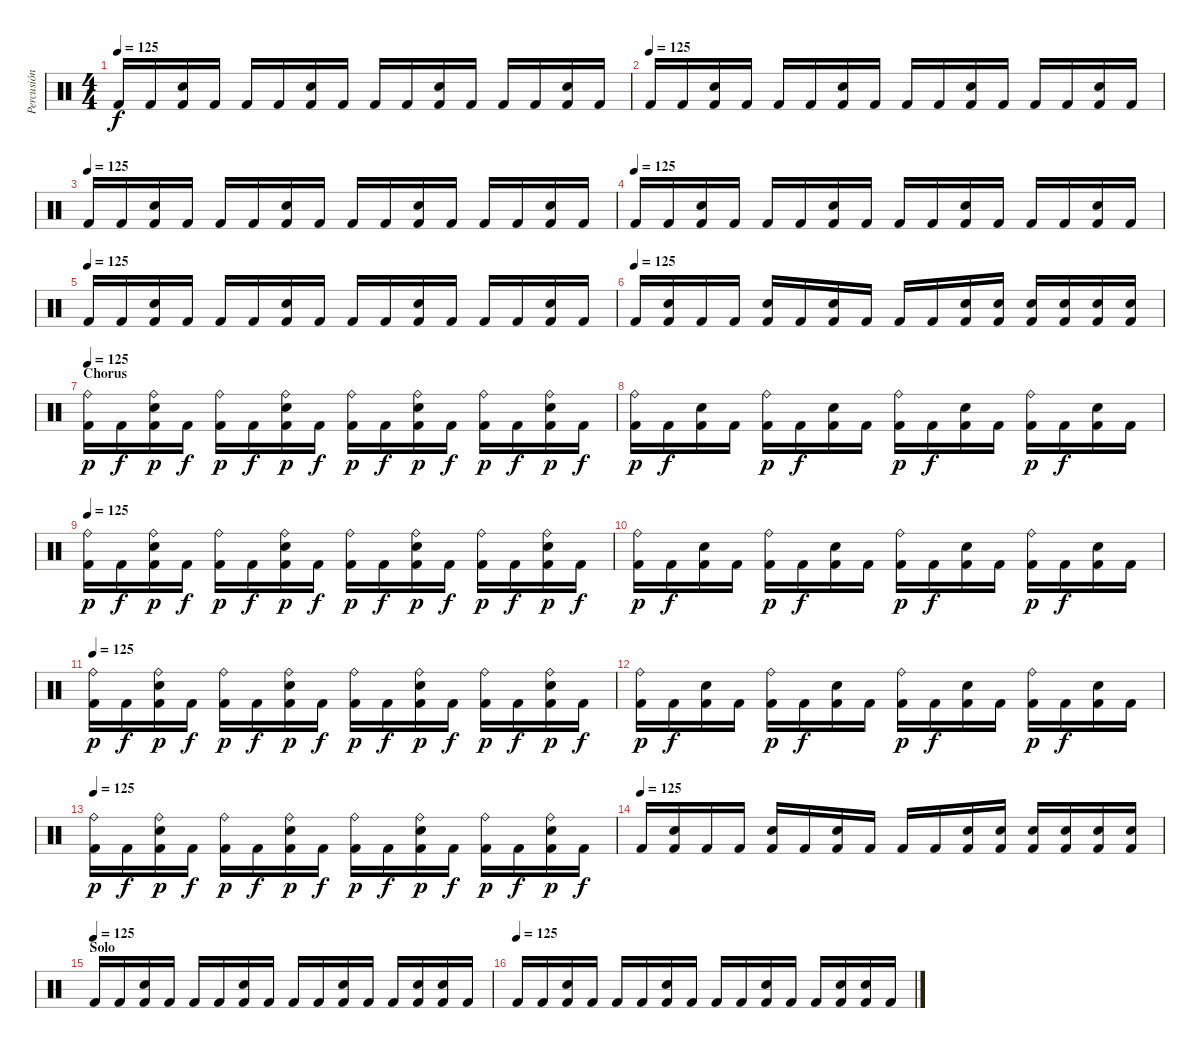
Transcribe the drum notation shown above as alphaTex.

\track ("Percusión" "Percusión") {instrument percussion}
\staff {score}
\articulation defaults
\ts (4 4)
\tempo 125
\clef neutral
\ks c "Kick (hit) 2".16{dy f} "Kick (hit) 2".16
("Electric Snare (hit)" "Kick (hit) 2").16 "Kick (hit) 2".16 "Kick (hit) 2".16 "Kick (hit) 2".16 ("Electric Snare (hit)" "Kick (hit) 2").16 "Kick (hit) 2".16 "Kick (hit) 2".16 "Kick (hit) 2".16 ("Electric Snare (hit)" "Kick (hit) 2").16 "Kick (hit) 2".16 "Kick (hit) 2".16 "Kick (hit) 2".16 ("Electric Snare (hit)" "Kick (hit) 2").16 "Kick (hit) 2".16 |
\tempo (125)
"Kick (hit) 2".16 "Kick (hit) 2".16 ("Electric Snare (hit)" "Kick (hit) 2").16 "Kick (hit) 2".16 "Kick (hit) 2".16 "Kick (hit) 2".16 ("Electric Snare (hit)" "Kick (hit) 2").16 "Kick (hit) 2".16 "Kick (hit) 2".16 "Kick (hit) 2".16 ("Electric Snare (hit)" "Kick (hit) 2").16 "Kick (hit) 2".16 "Kick (hit) 2".16 "Kick (hit) 2".16 ("Electric Snare (hit)" "Kick (hit) 2").16 "Kick (hit) 2".16 |
\tempo (125)
"Kick (hit) 2".16 "Kick (hit) 2".16 ("Electric Snare (hit)" "Kick (hit) 2").16 "Kick (hit) 2".16 "Kick (hit) 2".16 "Kick (hit) 2".16 ("Electric Snare (hit)" "Kick (hit) 2").16 "Kick (hit) 2".16 "Kick (hit) 2".16 "Kick (hit) 2".16 ("Electric Snare (hit)" "Kick (hit) 2").16 "Kick (hit) 2".16 "Kick (hit) 2".16 "Kick (hit) 2".16 ("Electric Snare (hit)" "Kick (hit) 2").16 "Kick (hit) 2".16 |
\tempo (125)
"Kick (hit) 2".16 "Kick (hit) 2".16 ("Electric Snare (hit)" "Kick (hit) 2").16 "Kick (hit) 2".16 "Kick (hit) 2".16 "Kick (hit) 2".16 ("Electric Snare (hit)" "Kick (hit) 2").16 "Kick (hit) 2".16 "Kick (hit) 2".16 "Kick (hit) 2".16 ("Electric Snare (hit)" "Kick (hit) 2").16 "Kick (hit) 2".16 "Kick (hit) 2".16 "Kick (hit) 2".16 ("Electric Snare (hit)" "Kick (hit) 2").16 "Kick (hit) 2".16 |
\tempo (125)
"Kick (hit) 2".16 "Kick (hit) 2".16 ("Electric Snare (hit)" "Kick (hit) 2").16 "Kick (hit) 2".16 "Kick (hit) 2".16 "Kick (hit) 2".16 ("Electric Snare (hit)" "Kick (hit) 2").16 "Kick (hit) 2".16 "Kick (hit) 2".16 "Kick (hit) 2".16 ("Electric Snare (hit)" "Kick (hit) 2").16 "Kick (hit) 2".16 "Kick (hit) 2".16 "Kick (hit) 2".16 ("Electric Snare (hit)" "Kick (hit) 2").16 "Kick (hit) 2".16 |
\tempo (125)
"Kick (hit) 2".16 ("Electric Snare (hit)" "Kick (hit) 2").16 "Kick (hit) 2".16 "Kick (hit) 2".16 ("Electric Snare (hit)" "Kick (hit) 2").16 "Kick (hit) 2".16 ("Electric Snare (hit)" "Kick (hit) 2").16 "Kick (hit) 2".16 "Kick (hit) 2".16 "Kick (hit) 2".16 ("Electric Snare (hit)" "Kick (hit) 2").16 ("Electric Snare (hit)" "Kick (hit) 2").16 ("Electric Snare (hit)" "Kick (hit) 2").16 ("Electric Snare (hit)" "Kick (hit) 2").16 ("Electric Snare (hit)" "Kick (hit) 2").16 ("Electric Snare (hit)" "Kick (hit) 2").16 |
\section ("" "Chorus")
\tempo 125
("Ride (bell)" "Kick (hit) 2").16{dy p} "Kick (hit) 2".16{dy f} ("Ride (bell)" "Electric Snare (hit)" "Kick (hit) 2").16{dy p} "Kick (hit) 2".16{dy f} ("Ride (bell)" "Kick (hit) 2").16{dy p} "Kick (hit) 2".16{dy f} ("Ride (bell)" "Electric Snare (hit)" "Kick (hit) 2").16{dy p} "Kick (hit) 2".16{dy f} ("Ride (bell)" "Kick (hit) 2").16{dy p} "Kick (hit) 2".16{dy f} ("Ride (bell)" "Electric Snare (hit)" "Kick (hit) 2").16{dy p} "Kick (hit) 2".16{dy f} ("Ride (bell)" "Kick (hit) 2").16{dy p} "Kick (hit) 2".16{dy f} ("Ride (bell)" "Electric Snare (hit)" "Kick (hit) 2").16{dy p} "Kick (hit) 2".16{dy f} |
("Ride (bell)" "Kick (hit) 2").16{dy p} "Kick (hit) 2".16{dy f} ("Electric Snare (hit)" "Kick (hit) 2").16 "Kick (hit) 2".16 ("Ride (bell)" "Kick (hit) 2").16{dy p} "Kick (hit) 2".16{dy f} ("Electric Snare (hit)" "Kick (hit) 2").16 "Kick (hit) 2".16 ("Ride (bell)" "Kick (hit) 2").16{dy p} "Kick (hit) 2".16{dy f} ("Electric Snare (hit)" "Kick (hit) 2").16 "Kick (hit) 2".16 ("Ride (bell)" "Kick (hit) 2").16{dy p} "Kick (hit) 2".16{dy f} ("Electric Snare (hit)" "Kick (hit) 2").16 "Kick (hit) 2".16 |
\tempo 125
("Ride (bell)" "Kick (hit) 2").16{dy p} "Kick (hit) 2".16{dy f} ("Ride (bell)" "Electric Snare (hit)" "Kick (hit) 2").16{dy p} "Kick (hit) 2".16{dy f} ("Ride (bell)" "Kick (hit) 2").16{dy p} "Kick (hit) 2".16{dy f} ("Ride (bell)" "Electric Snare (hit)" "Kick (hit) 2").16{dy p} "Kick (hit) 2".16{dy f} ("Ride (bell)" "Kick (hit) 2").16{dy p} "Kick (hit) 2".16{dy f} ("Ride (bell)" "Electric Snare (hit)" "Kick (hit) 2").16{dy p} "Kick (hit) 2".16{dy f} ("Ride (bell)" "Kick (hit) 2").16{dy p} "Kick (hit) 2".16{dy f} ("Ride (bell)" "Electric Snare (hit)" "Kick (hit) 2").16{dy p} "Kick (hit) 2".16{dy f} |
("Ride (bell)" "Kick (hit) 2").16{dy p} "Kick (hit) 2".16{dy f} ("Electric Snare (hit)" "Kick (hit) 2").16 "Kick (hit) 2".16 ("Ride (bell)" "Kick (hit) 2").16{dy p} "Kick (hit) 2".16{dy f} ("Electric Snare (hit)" "Kick (hit) 2").16 "Kick (hit) 2".16 ("Ride (bell)" "Kick (hit) 2").16{dy p} "Kick (hit) 2".16{dy f} ("Electric Snare (hit)" "Kick (hit) 2").16 "Kick (hit) 2".16 ("Ride (bell)" "Kick (hit) 2").16{dy p} "Kick (hit) 2".16{dy f} ("Electric Snare (hit)" "Kick (hit) 2").16 "Kick (hit) 2".16 |
\tempo 125
("Ride (bell)" "Kick (hit) 2").16{dy p} "Kick (hit) 2".16{dy f} ("Ride (bell)" "Electric Snare (hit)" "Kick (hit) 2").16{dy p} "Kick (hit) 2".16{dy f} ("Ride (bell)" "Kick (hit) 2").16{dy p} "Kick (hit) 2".16{dy f} ("Ride (bell)" "Electric Snare (hit)" "Kick (hit) 2").16{dy p} "Kick (hit) 2".16{dy f} ("Ride (bell)" "Kick (hit) 2").16{dy p} "Kick (hit) 2".16{dy f} ("Ride (bell)" "Electric Snare (hit)" "Kick (hit) 2").16{dy p} "Kick (hit) 2".16{dy f} ("Ride (bell)" "Kick (hit) 2").16{dy p} "Kick (hit) 2".16{dy f} ("Ride (bell)" "Electric Snare (hit)" "Kick (hit) 2").16{dy p} "Kick (hit) 2".16{dy f} |
("Ride (bell)" "Kick (hit) 2").16{dy p} "Kick (hit) 2".16{dy f} ("Electric Snare (hit)" "Kick (hit) 2").16 "Kick (hit) 2".16 ("Ride (bell)" "Kick (hit) 2").16{dy p} "Kick (hit) 2".16{dy f} ("Electric Snare (hit)" "Kick (hit) 2").16 "Kick (hit) 2".16 ("Ride (bell)" "Kick (hit) 2").16{dy p} "Kick (hit) 2".16{dy f} ("Electric Snare (hit)" "Kick (hit) 2").16 "Kick (hit) 2".16 ("Ride (bell)" "Kick (hit) 2").16{dy p} "Kick (hit) 2".16{dy f} ("Electric Snare (hit)" "Kick (hit) 2").16 "Kick (hit) 2".16 |
\tempo 125
("Ride (bell)" "Kick (hit) 2").16{dy p} "Kick (hit) 2".16{dy f} ("Ride (bell)" "Electric Snare (hit)" "Kick (hit) 2").16{dy p} "Kick (hit) 2".16{dy f} ("Ride (bell)" "Kick (hit) 2").16{dy p} "Kick (hit) 2".16{dy f} ("Ride (bell)" "Electric Snare (hit)" "Kick (hit) 2").16{dy p} "Kick (hit) 2".16{dy f} ("Ride (bell)" "Kick (hit) 2").16{dy p} "Kick (hit) 2".16{dy f} ("Ride (bell)" "Electric Snare (hit)" "Kick (hit) 2").16{dy p} "Kick (hit) 2".16{dy f} ("Ride (bell)" "Kick (hit) 2").16{dy p} "Kick (hit) 2".16{dy f} ("Ride (bell)" "Electric Snare (hit)" "Kick (hit) 2").16{dy p} "Kick (hit) 2".16{dy f} |
\tempo (125)
"Kick (hit) 2".16 ("Electric Snare (hit)" "Kick (hit) 2").16 "Kick (hit) 2".16 "Kick (hit) 2".16 ("Electric Snare (hit)" "Kick (hit) 2").16 "Kick (hit) 2".16 ("Electric Snare (hit)" "Kick (hit) 2").16 "Kick (hit) 2".16 "Kick (hit) 2".16 "Kick (hit) 2".16 ("Electric Snare (hit)" "Kick (hit) 2").16 ("Electric Snare (hit)" "Kick (hit) 2").16 ("Electric Snare (hit)" "Kick (hit) 2").16 ("Electric Snare (hit)" "Kick (hit) 2").16 ("Electric Snare (hit)" "Kick (hit) 2").16 ("Electric Snare (hit)" "Kick (hit) 2").16 |
\section ("" "Solo")
\tempo (125)
"Kick (hit) 2".16 "Kick (hit) 2".16 ("Electric Snare (hit)" "Kick (hit) 2").16 "Kick (hit) 2".16 "Kick (hit) 2".16 "Kick (hit) 2".16 ("Electric Snare (hit)" "Kick (hit) 2").16 "Kick (hit) 2".16 "Kick (hit) 2".16 "Kick (hit) 2".16 ("Electric Snare (hit)" "Kick (hit) 2").16 "Kick (hit) 2".16 "Kick (hit) 2".16 ("Electric Snare (hit)" "Kick (hit) 2").16 ("Electric Snare (hit)" "Kick (hit) 2").16 "Kick (hit) 2".16 |
\tempo (125)
"Kick (hit) 2".16 "Kick (hit) 2".16 ("Electric Snare (hit)" "Kick (hit) 2").16 "Kick (hit) 2".16 "Kick (hit) 2".16 "Kick (hit) 2".16 ("Electric Snare (hit)" "Kick (hit) 2").16 "Kick (hit) 2".16 "Kick (hit) 2".16 "Kick (hit) 2".16 ("Electric Snare (hit)" "Kick (hit) 2").16 "Kick (hit) 2".16 "Kick (hit) 2".16 ("Electric Snare (hit)" "Kick (hit) 2").16 ("Electric Snare (hit)" "Kick (hit) 2").16 "Kick (hit) 2".16
